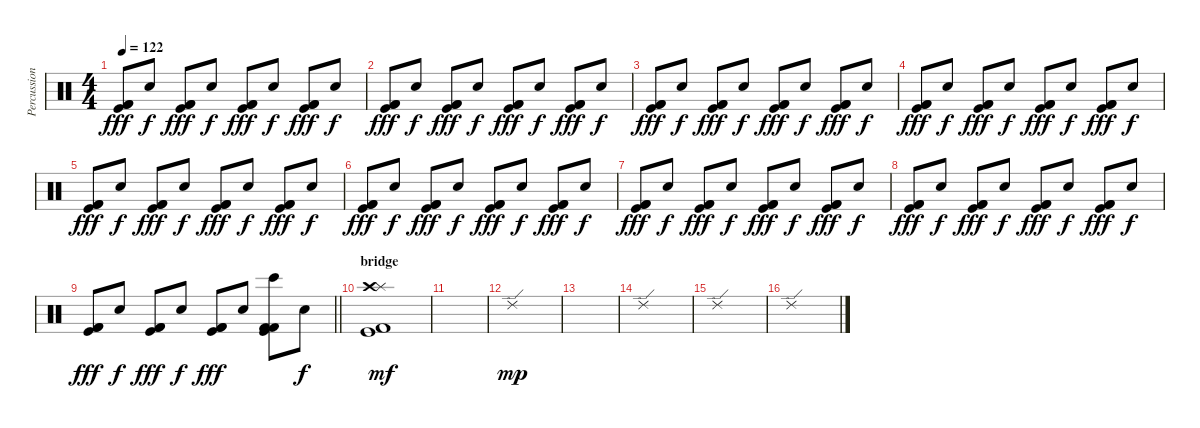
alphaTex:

\track ("Percussion" "Percussion") {instrument percussion}
\staff {score}
\articulation defaults
\ts (4 4)
\tempo 122
\clef neutral
\ks c
("Kick (hit) 2" "Kick (hit)" "Kick (hit) 2").8{dy fff} "Hand Clap (hit)".8{dy f} ("Kick (hit) 2" "Kick (hit)" "Kick (hit) 2").8{dy fff} "Hand Clap (hit)".8{dy f} ("Kick (hit) 2" "Kick (hit)" "Kick (hit) 2").8{dy fff} "Hand Clap (hit)".8{dy f} ("Kick (hit) 2" "Kick (hit)" "Kick (hit) 2").8{dy fff} "Hand Clap (hit)".8{dy f} |
("Kick (hit) 2" "Kick (hit)" "Kick (hit) 2").8{dy fff} "Hand Clap (hit)".8{dy f} ("Kick (hit) 2" "Kick (hit)" "Kick (hit) 2").8{dy fff} "Hand Clap (hit)".8{dy f} ("Kick (hit) 2" "Kick (hit)" "Kick (hit) 2").8{dy fff} "Hand Clap (hit)".8{dy f} ("Kick (hit) 2" "Kick (hit)" "Kick (hit) 2").8{dy fff} "Hand Clap (hit)".8{dy f} |
("Kick (hit) 2" "Kick (hit)" "Kick (hit) 2").8{dy fff} "Hand Clap (hit)".8{dy f} ("Kick (hit) 2" "Kick (hit)" "Kick (hit) 2").8{dy fff} "Hand Clap (hit)".8{dy f} ("Kick (hit) 2" "Kick (hit)" "Kick (hit) 2").8{dy fff} "Hand Clap (hit)".8{dy f} ("Kick (hit) 2" "Kick (hit)" "Kick (hit) 2").8{dy fff} "Hand Clap (hit)".8{dy f} |
("Kick (hit) 2" "Kick (hit)" "Kick (hit) 2").8{dy fff} "Hand Clap (hit)".8{dy f} ("Kick (hit) 2" "Kick (hit)" "Kick (hit) 2").8{dy fff} "Hand Clap (hit)".8{dy f} ("Kick (hit) 2" "Kick (hit)" "Kick (hit) 2").8{dy fff} "Hand Clap (hit)".8{dy f} ("Kick (hit) 2" "Kick (hit)" "Kick (hit) 2").8{dy fff} "Hand Clap (hit)".8{dy f} |
("Kick (hit) 2" "Kick (hit)" "Kick (hit) 2").8{dy fff} "Hand Clap (hit)".8{dy f} ("Kick (hit) 2" "Kick (hit)" "Kick (hit) 2").8{dy fff} "Hand Clap (hit)".8{dy f} ("Kick (hit) 2" "Kick (hit)" "Kick (hit) 2").8{dy fff} "Hand Clap (hit)".8{dy f} ("Kick (hit) 2" "Kick (hit)" "Kick (hit) 2").8{dy fff} "Hand Clap (hit)".8{dy f} |
("Kick (hit) 2" "Kick (hit)" "Kick (hit) 2").8{dy fff} "Hand Clap (hit)".8{dy f} ("Kick (hit) 2" "Kick (hit)" "Kick (hit) 2").8{dy fff} "Hand Clap (hit)".8{dy f} ("Kick (hit) 2" "Kick (hit)" "Kick (hit) 2").8{dy fff} "Hand Clap (hit)".8{dy f} ("Kick (hit) 2" "Kick (hit)" "Kick (hit) 2").8{dy fff} "Hand Clap (hit)".8{dy f} |
("Kick (hit) 2" "Kick (hit)" "Kick (hit) 2").8{dy fff} "Hand Clap (hit)".8{dy f} ("Kick (hit) 2" "Kick (hit)" "Kick (hit) 2").8{dy fff} "Hand Clap (hit)".8{dy f} ("Kick (hit) 2" "Kick (hit)" "Kick (hit) 2").8{dy fff} "Hand Clap (hit)".8{dy f} ("Kick (hit) 2" "Kick (hit)" "Kick (hit) 2").8{dy fff} "Hand Clap (hit)".8{dy f} |
("Kick (hit) 2" "Kick (hit)" "Kick (hit) 2").8{dy fff} "Hand Clap (hit)".8{dy f} ("Kick (hit) 2" "Kick (hit)" "Kick (hit) 2").8{dy fff} "Hand Clap (hit)".8{dy f} ("Kick (hit) 2" "Kick (hit)" "Kick (hit) 2").8{dy fff} "Hand Clap (hit)".8{dy f} ("Kick (hit) 2" "Kick (hit)" "Kick (hit) 2").8{dy fff} "Hand Clap (hit)".8{dy f} |
\barLineRight lightlight
("Kick (hit) 2" "Kick (hit)" "Kick (hit) 2").8{dy fff} "Hand Clap (hit)".8{dy f} ("Kick (hit) 2" "Kick (hit)" "Kick (hit) 2").8{dy fff} "Hand Clap (hit)".8{dy f} ("Kick (hit) 2" "Kick (hit)" "Kick (hit) 2").8{dy fff} "Hand Clap (hit)".8 ("Bongo High (hit)" "Kick (hit) 2" "Kick (hit)" "Kick (hit) 2").8 "Hand Clap (hit)".8{dy f} |
\section ("" "bridge")
("Splash (hit)" "Crash high (hit)" "Kick (hit)" "Kick (hit) 2").1{dy mf} |
|
"Ride (edge) 2".1{dy mp} |
|
"Ride (edge) 2".1 |
"Ride (edge) 2".1 |
"Ride (edge) 2".1
